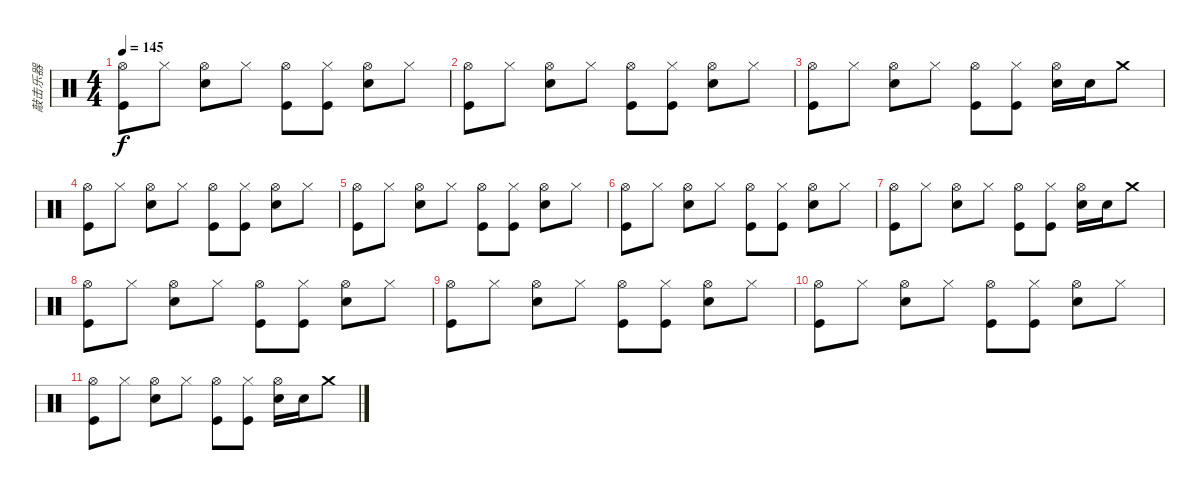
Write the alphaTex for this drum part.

\track ("敲击乐器" "敲击乐器") {instrument percussion}
\staff {score}
\articulation defaults
\ts (4 4)
\tempo 145
\clef neutral
\ks c
("Hi-Hat (open)" "Kick (hit)").8{dy f} "Hi-Hat (closed)".8 ("Hi-Hat (open)" "Snare (hit) 2").8 "Hi-Hat (closed)".8 ("Hi-Hat (open)" "Kick (hit)").8 ("Hi-Hat (closed)" "Kick (hit)").8 ("Hi-Hat (open)" "Snare (hit) 2").8 "Hi-Hat (closed)".8 |
("Hi-Hat (open)" "Kick (hit)").8 "Hi-Hat (closed)".8 ("Hi-Hat (open)" "Snare (hit) 2").8 "Hi-Hat (closed)".8 ("Hi-Hat (open)" "Kick (hit)").8 ("Hi-Hat (closed)" "Kick (hit)").8 ("Hi-Hat (open)" "Snare (hit) 2").8 "Hi-Hat (closed)".8 |
("Hi-Hat (open)" "Kick (hit)").8 "Hi-Hat (closed)".8 ("Hi-Hat (open)" "Snare (hit) 2").8 "Hi-Hat (closed)".8 ("Hi-Hat (open)" "Kick (hit)").8 ("Hi-Hat (closed)" "Kick (hit)").8 ("Hi-Hat (open)" "Snare (hit) 2").16 "Snare (hit) 2".16 "Crash medium (hit)".8 |
("Hi-Hat (open)" "Kick (hit)").8 "Hi-Hat (closed)".8 ("Hi-Hat (open)" "Snare (hit) 2").8 "Hi-Hat (closed)".8 ("Hi-Hat (open)" "Kick (hit)").8 ("Hi-Hat (closed)" "Kick (hit)").8 ("Hi-Hat (open)" "Snare (hit) 2").8 "Hi-Hat (closed)".8 |
("Hi-Hat (open)" "Kick (hit)").8 "Hi-Hat (closed)".8 ("Hi-Hat (open)" "Snare (hit) 2").8 "Hi-Hat (closed)".8 ("Hi-Hat (open)" "Kick (hit)").8 ("Hi-Hat (closed)" "Kick (hit)").8 ("Hi-Hat (open)" "Snare (hit) 2").8 "Hi-Hat (closed)".8 |
("Hi-Hat (open)" "Kick (hit)").8 "Hi-Hat (closed)".8 ("Hi-Hat (open)" "Snare (hit) 2").8 "Hi-Hat (closed)".8 ("Hi-Hat (open)" "Kick (hit)").8 ("Hi-Hat (closed)" "Kick (hit)").8 ("Hi-Hat (open)" "Snare (hit) 2").8 "Hi-Hat (closed)".8 |
("Hi-Hat (open)" "Kick (hit)").8 "Hi-Hat (closed)".8 ("Hi-Hat (open)" "Snare (hit) 2").8 "Hi-Hat (closed)".8 ("Hi-Hat (open)" "Kick (hit)").8 ("Hi-Hat (closed)" "Kick (hit)").8 ("Hi-Hat (open)" "Snare (hit) 2").16 "Snare (hit) 2".16 "Crash medium (hit)".8 |
("Hi-Hat (open)" "Kick (hit)").8 "Hi-Hat (closed)".8 ("Hi-Hat (open)" "Snare (hit) 2").8 "Hi-Hat (closed)".8 ("Hi-Hat (open)" "Kick (hit)").8 ("Hi-Hat (closed)" "Kick (hit)").8 ("Hi-Hat (open)" "Snare (hit) 2").8 "Hi-Hat (closed)".8 |
("Hi-Hat (open)" "Kick (hit)").8 "Hi-Hat (closed)".8 ("Hi-Hat (open)" "Snare (hit) 2").8 "Hi-Hat (closed)".8 ("Hi-Hat (open)" "Kick (hit)").8 ("Hi-Hat (closed)" "Kick (hit)").8 ("Hi-Hat (open)" "Snare (hit) 2").8 "Hi-Hat (closed)".8 |
("Hi-Hat (open)" "Kick (hit)").8 "Hi-Hat (closed)".8 ("Hi-Hat (open)" "Snare (hit) 2").8 "Hi-Hat (closed)".8 ("Hi-Hat (open)" "Kick (hit)").8 ("Hi-Hat (closed)" "Kick (hit)").8 ("Hi-Hat (open)" "Snare (hit) 2").8 "Hi-Hat (closed)".8 |
("Hi-Hat (open)" "Kick (hit)").8 "Hi-Hat (closed)".8 ("Hi-Hat (open)" "Snare (hit) 2").8 "Hi-Hat (closed)".8 ("Hi-Hat (open)" "Kick (hit)").8 ("Hi-Hat (closed)" "Kick (hit)").8 ("Hi-Hat (open)" "Snare (hit) 2").16 "Snare (hit) 2".16 "Crash medium (hit)".8
